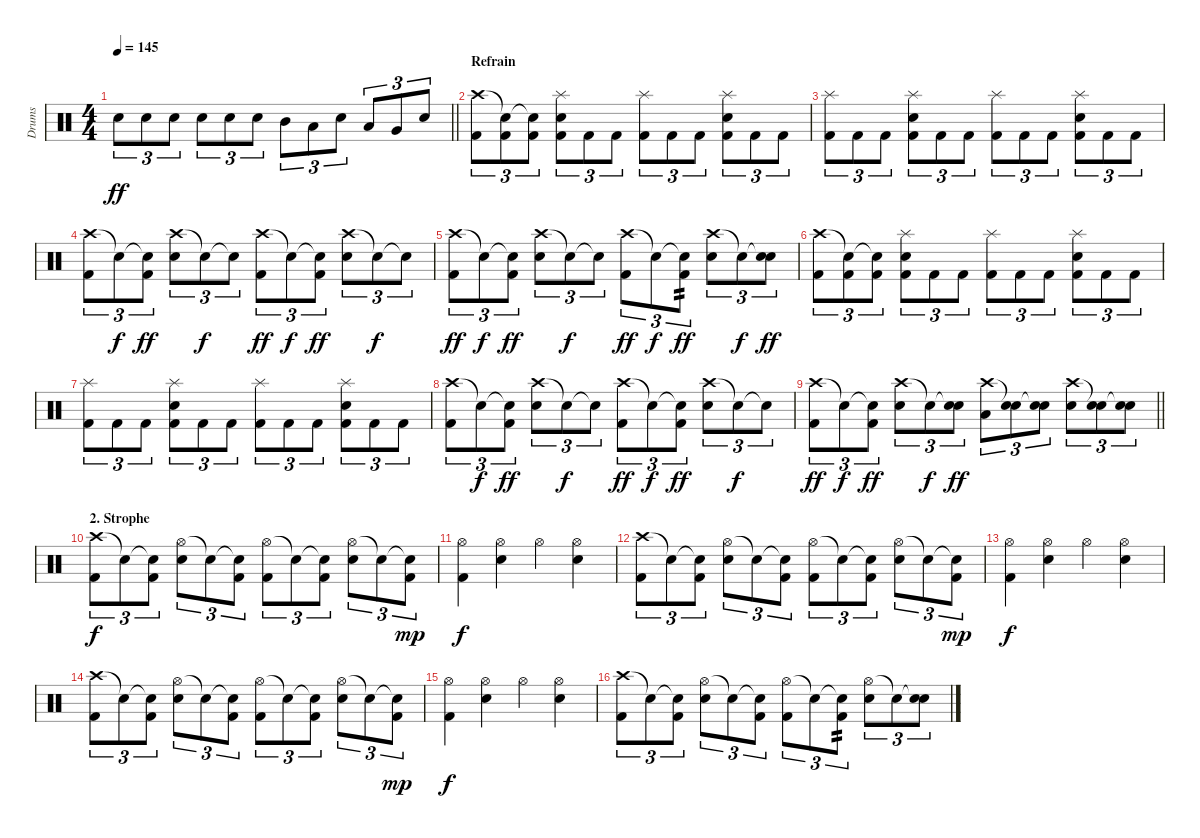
\track ("Drums" "Drums") {instrument percussion}
\staff {score}
\articulation defaults
\ts (4 4)
\tempo 145
\clef neutral
\barLineRight lightlight
\ks c "Electric Snare (hit)".8{tu (3 2) dy ff} "Electric Snare (hit)".8{tu (3 2)} "Electric Snare (hit)".8{tu (3 2)} "Electric Snare (hit)".8{tu (3 2)} "Electric Snare (hit)".8{tu (3 2)} "Electric Snare (hit)".8{tu (3 2)} "Mid Tom (hit)".8{tu (3 2)} "Low Tom (hit)".8{tu (3 2)} "Electric Snare (hit)".8{tu (3 2)} "Low Tom (hit)".8{tu (3 2)} "Very Low Tom (hit)".8{tu (3 2)} "Electric Snare (hit)".8{tu (3 2)}
|
\section ("" "Refrain")
("Crash high (hit)" "Kick (hit) 2").8{tu (3 2)} ("Snare (hit)"{t} "Kick (hit) 2").8{tu (3 2)} ("Snare (hit)"{t} "Kick (hit) 2").8{tu (3 2)} ("Splash (hit)" "Snare (hit) 2" "Kick (hit) 2").8{tu (3 2)} "Kick (hit) 2".8{tu (3 2)} "Kick (hit) 2".8{tu (3 2)} ("Splash (hit)" "Kick (hit) 2").8{tu (3 2)} "Kick (hit) 2".8{tu (3 2)} "Kick (hit) 2".8{tu (3 2)} ("Splash (hit)" "Kick (hit) 2" "Snare (hit) 2").8{tu (3 2)} "Kick (hit) 2".8{tu (3 2)} "Kick (hit) 2".8{tu (3 2)} |
("Splash (hit)" "Kick (hit) 2").8{tu (3 2)} "Kick (hit) 2".8{tu (3 2)} "Kick (hit) 2".8{tu (3 2)} ("Splash (hit)" "Snare (hit) 2" "Kick (hit) 2").8{tu (3 2)} "Kick (hit) 2".8{tu (3 2)} "Kick (hit) 2".8{tu (3 2)} ("Splash (hit)" "Kick (hit) 2").8{tu (3 2)} "Kick (hit) 2".8{tu (3 2)} "Kick (hit) 2".8{tu (3 2)} ("Splash (hit)" "Kick (hit) 2" "Snare (hit) 2").8{tu (3 2)} "Kick (hit) 2".8{tu (3 2)} "Kick (hit) 2".8{tu (3 2)} |
("Crash high (hit)" "Kick (hit) 2").8{tu (3 2)} "Snare (hit)"{t}.8{tu (3 2) dy f} ("Snare (hit)"{t} "Kick (hit) 2").8{tu (3 2) dy ff} ("Crash high (hit)" "Snare (hit) 2").8{tu (3 2)} "Snare (hit)"{t}.8{tu (3 2) dy f} "Snare (hit)"{t}.8{tu (3 2)} ("Crash high (hit)" "Kick (hit) 2").8{tu (3 2) dy ff} "Snare (hit)"{t}.8{tu (3 2) dy f} ("Snare (hit)"{t} "Kick (hit) 2").8{tu (3 2) dy ff} ("Crash high (hit)" "Snare (hit) 2").8{tu (3 2)} "Snare (hit)"{t}.8{tu (3 2) dy f} "Snare (hit)"{t}.8{tu (3 2)} |
("Crash high (hit)" "Kick (hit) 2").8{tu (3 2) dy ff} "Snare (hit)"{t}.8{tu (3 2) dy f} ("Snare (hit)"{t} "Kick (hit) 2").8{tu (3 2) dy ff} ("Crash high (hit)" "Snare (hit) 2").8{tu (3 2)} "Snare (hit)"{t}.8{tu (3 2) dy f} "Snare (hit)"{t}.8{tu (3 2)} ("Crash high (hit)" "Kick (hit) 2").8{tu (3 2) dy ff} "Snare (hit)"{t}.8{tu (3 2) dy f} ("Snare (hit)"{t} "Kick (hit) 2").8{tu (3 2) tp 2 dy ff} ("Crash high (hit)" "Snare (hit) 2").8{tu (3 2)} "Snare (hit)"{t}.8{tu (3 2) dy f} ("Snare (hit)"{t} "Snare (hit) 2").8{tu (3 2) dy ff} |
("Crash high (hit)" "Kick (hit) 2").8{tu (3 2)} ("Snare (hit)"{t} "Kick (hit) 2").8{tu (3 2)} ("Snare (hit)"{t} "Kick (hit) 2").8{tu (3 2)} ("Splash (hit)" "Snare (hit) 2" "Kick (hit) 2").8{tu (3 2)} "Kick (hit) 2".8{tu (3 2)} "Kick (hit) 2".8{tu (3 2)} ("Splash (hit)" "Kick (hit) 2").8{tu (3 2)} "Kick (hit) 2".8{tu (3 2)} "Kick (hit) 2".8{tu (3 2)} ("Splash (hit)" "Kick (hit) 2" "Snare (hit) 2").8{tu (3 2)} "Kick (hit) 2".8{tu (3 2)} "Kick (hit) 2".8{tu (3 2)} |
("Splash (hit)" "Kick (hit) 2").8{tu (3 2)} "Kick (hit) 2".8{tu (3 2)} "Kick (hit) 2".8{tu (3 2)} ("Splash (hit)" "Snare (hit) 2" "Kick (hit) 2").8{tu (3 2)} "Kick (hit) 2".8{tu (3 2)} "Kick (hit) 2".8{tu (3 2)} ("Splash (hit)" "Kick (hit) 2").8{tu (3 2)} "Kick (hit) 2".8{tu (3 2)} "Kick (hit) 2".8{tu (3 2)} ("Splash (hit)" "Kick (hit) 2" "Snare (hit) 2").8{tu (3 2)} "Kick (hit) 2".8{tu (3 2)} "Kick (hit) 2".8{tu (3 2)} |
("Crash high (hit)" "Kick (hit) 2").8{tu (3 2)} "Snare (hit)"{t}.8{tu (3 2) dy f} ("Snare (hit)"{t} "Kick (hit) 2").8{tu (3 2) dy ff} ("Crash high (hit)" "Snare (hit) 2").8{tu (3 2)} "Snare (hit)"{t}.8{tu (3 2) dy f} "Snare (hit)"{t}.8{tu (3 2)} ("Crash high (hit)" "Kick (hit) 2").8{tu (3 2) dy ff} "Snare (hit)"{t}.8{tu (3 2) dy f} ("Snare (hit)"{t} "Kick (hit) 2").8{tu (3 2) dy ff} ("Crash high (hit)" "Snare (hit) 2").8{tu (3 2)} "Snare (hit)"{t}.8{tu (3 2) dy f} "Snare (hit)"{t}.8{tu (3 2)} |
\barLineRight lightlight
("Crash high (hit)" "Kick (hit) 2").8{tu (3 2) dy ff} "Snare (hit)"{t}.8{tu (3 2) dy f} ("Snare (hit)"{t} "Kick (hit) 2").8{tu (3 2) dy ff} ("Crash high (hit)" "Snare (hit) 2").8{tu (3 2)} "Snare (hit)"{t}.8{tu (3 2) dy f} ("Snare (hit)"{t} "Snare (hit) 2").8{tu (3 2) dy ff} ("Crash high (hit)" "Low Floor Tom (hit)").8{tu (3 2)} ("Snare (hit)"{t} "Electric Snare (hit)").8{tu (3 2)} ("Snare (hit)"{t} "Electric Snare (hit)").8{tu (3 2)} ("Crash high (hit)" "Electric Snare (hit)").8{tu (3 2)} ("Snare (hit)"{t} "Electric Snare (hit)").8{tu (3 2)} ("Snare (hit)"{t} "Electric Snare (hit)").8{tu (3 2)} |
\section ("" "2. Strophe")
("Crash high (hit)" "Kick (hit) 2").8{tu (3 2) dy f} "Snare (hit)"{t}.8{tu (3 2)} ("Snare (hit)"{t} "Kick (hit) 2").8{tu (3 2)} ("Hi-Hat (open)" "Snare (hit) 2").8{tu (3 2)} "Snare (hit)"{t}.8{tu (3 2)} ("Snare (hit)"{t} "Kick (hit) 2").8{tu (3 2)} ("Hi-Hat (open)" "Kick (hit) 2").8{tu (3 2)} "Snare (hit)"{t}.8{tu (3 2)} ("Snare (hit)"{t} "Kick (hit) 2").8{tu (3 2)} ("Hi-Hat (open)" "Snare (hit) 2").8{tu (3 2)} "Snare (hit)"{t}.8{tu (3 2)} ("Snare (hit)"{t} "Kick (hit) 2").8{tu (3 2) dy mp} |
("Hi-Hat (open)" "Kick (hit) 2").4{dy f} ("Hi-Hat (open)" "Snare (hit) 2").4 "Hi-Hat (open)".4 ("Hi-Hat (open)" "Snare (hit) 2").4 |
("Crash high (hit)" "Kick (hit) 2").8{tu (3 2)} "Snare (hit)"{t}.8{tu (3 2)} ("Snare (hit)"{t} "Kick (hit) 2").8{tu (3 2)} ("Hi-Hat (open)" "Snare (hit) 2").8{tu (3 2)} "Snare (hit)"{t}.8{tu (3 2)} ("Snare (hit)"{t} "Kick (hit) 2").8{tu (3 2)} ("Hi-Hat (open)" "Kick (hit) 2").8{tu (3 2)} "Snare (hit)"{t}.8{tu (3 2)} ("Snare (hit)"{t} "Kick (hit) 2").8{tu (3 2)} ("Hi-Hat (open)" "Snare (hit) 2").8{tu (3 2)} "Snare (hit)"{t}.8{tu (3 2)} ("Snare (hit)"{t} "Kick (hit) 2").8{tu (3 2) dy mp} |
("Hi-Hat (open)" "Kick (hit) 2").4{dy f} ("Hi-Hat (open)" "Snare (hit) 2").4 "Hi-Hat (open)".4 ("Hi-Hat (open)" "Snare (hit) 2").4 |
("Crash high (hit)" "Kick (hit) 2").8{tu (3 2)} "Snare (hit)"{t}.8{tu (3 2)} ("Snare (hit)"{t} "Kick (hit) 2").8{tu (3 2)} ("Hi-Hat (open)" "Snare (hit) 2").8{tu (3 2)} "Snare (hit)"{t}.8{tu (3 2)} ("Snare (hit)"{t} "Kick (hit) 2").8{tu (3 2)} ("Hi-Hat (open)" "Kick (hit) 2").8{tu (3 2)} "Snare (hit)"{t}.8{tu (3 2)} ("Snare (hit)"{t} "Kick (hit) 2").8{tu (3 2)} ("Hi-Hat (open)" "Snare (hit) 2").8{tu (3 2)} "Snare (hit)"{t}.8{tu (3 2)} ("Snare (hit)"{t} "Kick (hit) 2").8{tu (3 2) dy mp} |
("Hi-Hat (open)" "Kick (hit) 2").4{dy f} ("Hi-Hat (open)" "Snare (hit) 2").4 "Hi-Hat (open)".4 ("Hi-Hat (open)" "Snare (hit) 2").4 |
("Crash high (hit)" "Kick (hit) 2").8{tu (3 2)} "Snare (hit)"{t}.8{tu (3 2)} ("Snare (hit)"{t} "Kick (hit) 2").8{tu (3 2)} ("Hi-Hat (open)" "Snare (hit) 2").8{tu (3 2)} "Snare (hit)"{t}.8{tu (3 2)} ("Snare (hit)"{t} "Kick (hit) 2").8{tu (3 2)} ("Hi-Hat (open)" "Kick (hit) 2").8{tu (3 2)} "Snare (hit)"{t}.8{tu (3 2)} ("Snare (hit)"{t} "Kick (hit) 2").8{tu (3 2) tp 2} ("Hi-Hat (open)" "Snare (hit) 2").8{tu (3 2)} "Snare (hit)"{t}.8{tu (3 2)} ("Snare (hit)"{t} "Snare (hit) 2").8{tu (3 2)}
